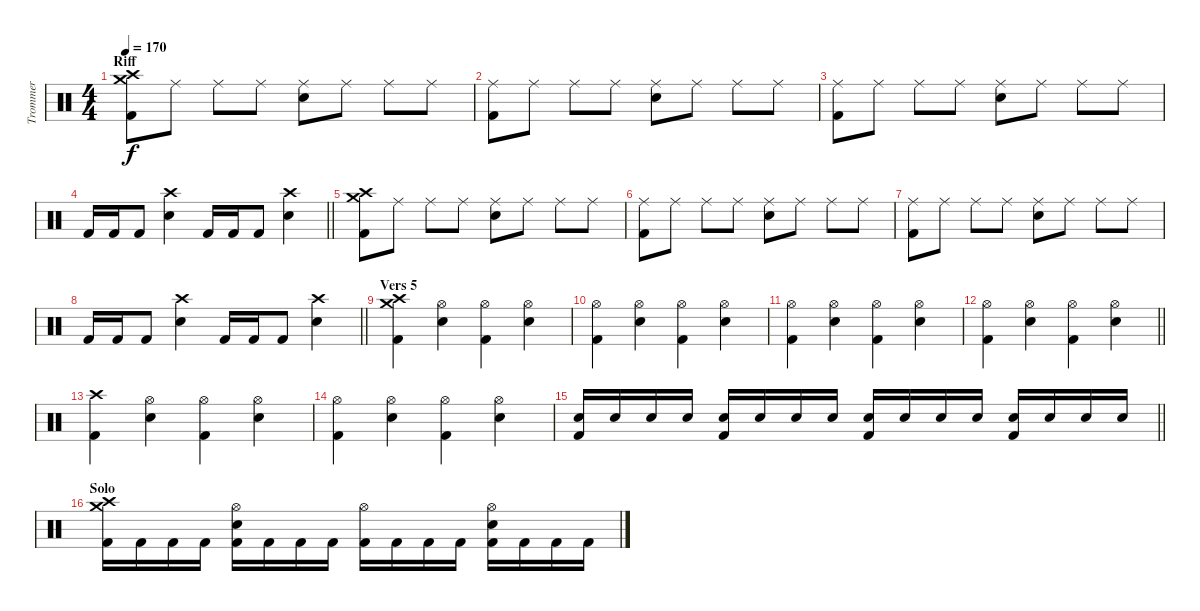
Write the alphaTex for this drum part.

\track ("Trommer" "Trommer") {instrument percussion}
\staff {score}
\articulation defaults
\ts (4 4)
\section ("" "Riff")
\tempo 170
\clef neutral
\ks c
("Crash medium (hit)" "Crash high (hit)" "Kick (hit) 2").8{dy f} "Ride (middle)".8 "Ride (middle)".8 "Ride (middle)".8 ("Ride (middle)" "Snare (hit) 2").8 "Ride (middle)".8 "Ride (middle)".8 "Ride (middle)".8 |
("Ride (middle)" "Kick (hit) 2").8 "Ride (middle)".8 "Ride (middle)".8 "Ride (middle)".8 ("Ride (middle)" "Snare (hit) 2").8 "Ride (middle)".8 "Ride (middle)".8 "Ride (middle)".8 |
("Ride (middle)" "Kick (hit) 2").8 "Ride (middle)".8 "Ride (middle)".8 "Ride (middle)".8 ("Ride (middle)" "Snare (hit) 2").8 "Ride (middle)".8 "Ride (middle)".8 "Ride (middle)".8 |
\barLineRight lightlight "Kick (hit) 2".16 "Kick (hit) 2".16 "Kick (hit) 2".8
("Crash high (hit)" "Snare (hit) 2").4 "Kick (hit) 2".16 "Kick (hit) 2".16 "Kick (hit) 2".8 ("Crash high (hit)" "Snare (hit) 2").4 |
("Crash medium (hit)" "Crash high (hit)" "Kick (hit) 2").8 "Ride (middle)".8 "Ride (middle)".8 "Ride (middle)".8 ("Ride (middle)" "Snare (hit) 2").8 "Ride (middle)".8 "Ride (middle)".8 "Ride (middle)".8 |
("Ride (middle)" "Kick (hit) 2").8 "Ride (middle)".8 "Ride (middle)".8 "Ride (middle)".8 ("Ride (middle)" "Snare (hit) 2").8 "Ride (middle)".8 "Ride (middle)".8 "Ride (middle)".8 |
("Ride (middle)" "Kick (hit) 2").8 "Ride (middle)".8 "Ride (middle)".8 "Ride (middle)".8 ("Ride (middle)" "Snare (hit) 2").8 "Ride (middle)".8 "Ride (middle)".8 "Ride (middle)".8 |
\barLineRight lightlight "Kick (hit) 2".16 "Kick (hit) 2".16 "Kick (hit) 2".8
("Crash high (hit)" "Snare (hit) 2").4 "Kick (hit) 2".16 "Kick (hit) 2".16 "Kick (hit) 2".8 ("Crash high (hit)" "Snare (hit) 2").4 |
\section ("" "Vers 5")
("Crash medium (hit)" "Crash high (hit)" "Kick (hit) 2").4 ("Hi-Hat (open)" "Snare (hit) 2").4 ("Hi-Hat (open)" "Kick (hit) 2").4 ("Hi-Hat (open)" "Snare (hit) 2").4 |
("Hi-Hat (open)" "Kick (hit) 2").4 ("Hi-Hat (open)" "Snare (hit) 2").4 ("Hi-Hat (open)" "Kick (hit) 2").4 ("Hi-Hat (open)" "Snare (hit) 2").4 |
("Hi-Hat (open)" "Kick (hit) 2").4 ("Hi-Hat (open)" "Snare (hit) 2").4 ("Hi-Hat (open)" "Kick (hit) 2").4 ("Hi-Hat (open)" "Snare (hit) 2").4 |
\barLineRight lightlight
("Hi-Hat (open)" "Kick (hit) 2").4 ("Hi-Hat (open)" "Snare (hit) 2").4 ("Hi-Hat (open)" "Kick (hit) 2").4 ("Hi-Hat (open)" "Snare (hit) 2").4 |
("Crash high (hit)" "Kick (hit) 2").4 ("Hi-Hat (open)" "Snare (hit) 2").4 ("Hi-Hat (open)" "Kick (hit) 2").4 ("Hi-Hat (open)" "Snare (hit) 2").4 |
("Hi-Hat (open)" "Kick (hit) 2").4 ("Hi-Hat (open)" "Snare (hit) 2").4 ("Hi-Hat (open)" "Kick (hit) 2").4 ("Hi-Hat (open)" "Snare (hit) 2").4 |
\barLineRight lightlight
("Snare (hit) 2" "Kick (hit) 2").16 "Snare (hit) 2".16 "Snare (hit) 2".16 "Snare (hit) 2".16 ("Snare (hit) 2" "Kick (hit) 2").16 "Snare (hit) 2".16 "Snare (hit) 2".16 "Snare (hit) 2".16 ("Snare (hit) 2" "Kick (hit) 2").16 "Snare (hit) 2".16 "Snare (hit) 2".16 "Snare (hit) 2".16 ("Snare (hit) 2" "Kick (hit) 2").16 "Snare (hit) 2".16 "Snare (hit) 2".16 "Snare (hit) 2".16 |
\section ("" "Solo")
("Crash high (hit)" "Crash medium (hit)" "Kick (hit) 2").16 "Kick (hit) 2".16 "Kick (hit) 2".16 "Kick (hit) 2".16 ("Hi-Hat (open)" "Snare (hit) 2" "Kick (hit) 2").16 "Kick (hit) 2".16 "Kick (hit) 2".16 "Kick (hit) 2".16 ("Hi-Hat (open)" "Kick (hit) 2").16 "Kick (hit) 2".16 "Kick (hit) 2".16 "Kick (hit) 2".16 ("Hi-Hat (open)" "Snare (hit) 2" "Kick (hit) 2").16 "Kick (hit) 2".16 "Kick (hit) 2".16 "Kick (hit) 2".16
